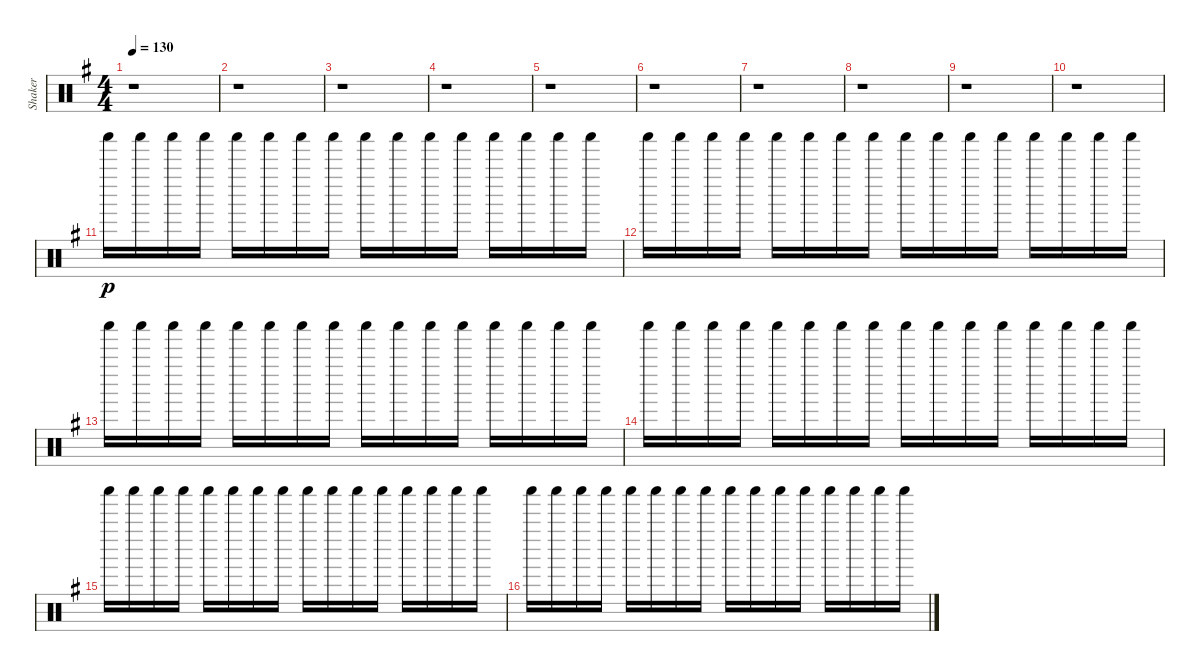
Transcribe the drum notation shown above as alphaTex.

\track ("Shaker" "Shaker") {instrument percussion}
\staff {score}
\articulation defaults
\ts (4 4)
\tempo 130
\clef neutral
\ks g
r.1{dy p} |
r.1 |
r.1 |
r.1 |
r.1 |
r.1 |
r.1 |
r.1 |
r.1 |
r.1 |
"Shaker (hit)".16 "Shaker (hit)".16 "Shaker (hit)".16 "Shaker (hit)".16 "Shaker (hit)".16 "Shaker (hit)".16 "Shaker (hit)".16 "Shaker (hit)".16 "Shaker (hit)".16 "Shaker (hit)".16 "Shaker (hit)".16 "Shaker (hit)".16 "Shaker (hit)".16 "Shaker (hit)".16 "Shaker (hit)".16 "Shaker (hit)".16 |
"Shaker (hit)".16 "Shaker (hit)".16 "Shaker (hit)".16 "Shaker (hit)".16 "Shaker (hit)".16 "Shaker (hit)".16 "Shaker (hit)".16 "Shaker (hit)".16 "Shaker (hit)".16 "Shaker (hit)".16 "Shaker (hit)".16 "Shaker (hit)".16 "Shaker (hit)".16 "Shaker (hit)".16 "Shaker (hit)".16 "Shaker (hit)".16 |
"Shaker (hit)".16 "Shaker (hit)".16 "Shaker (hit)".16 "Shaker (hit)".16 "Shaker (hit)".16 "Shaker (hit)".16 "Shaker (hit)".16 "Shaker (hit)".16 "Shaker (hit)".16 "Shaker (hit)".16 "Shaker (hit)".16 "Shaker (hit)".16 "Shaker (hit)".16 "Shaker (hit)".16 "Shaker (hit)".16 "Shaker (hit)".16 |
"Shaker (hit)".16 "Shaker (hit)".16 "Shaker (hit)".16 "Shaker (hit)".16 "Shaker (hit)".16 "Shaker (hit)".16 "Shaker (hit)".16 "Shaker (hit)".16 "Shaker (hit)".16 "Shaker (hit)".16 "Shaker (hit)".16 "Shaker (hit)".16 "Shaker (hit)".16 "Shaker (hit)".16 "Shaker (hit)".16 "Shaker (hit)".16 |
"Shaker (hit)".16 "Shaker (hit)".16 "Shaker (hit)".16 "Shaker (hit)".16 "Shaker (hit)".16 "Shaker (hit)".16 "Shaker (hit)".16 "Shaker (hit)".16 "Shaker (hit)".16 "Shaker (hit)".16 "Shaker (hit)".16 "Shaker (hit)".16 "Shaker (hit)".16 "Shaker (hit)".16 "Shaker (hit)".16 "Shaker (hit)".16 |
"Shaker (hit)".16 "Shaker (hit)".16 "Shaker (hit)".16 "Shaker (hit)".16 "Shaker (hit)".16 "Shaker (hit)".16 "Shaker (hit)".16 "Shaker (hit)".16 "Shaker (hit)".16 "Shaker (hit)".16 "Shaker (hit)".16 "Shaker (hit)".16 "Shaker (hit)".16 "Shaker (hit)".16 "Shaker (hit)".16 "Shaker (hit)".16
